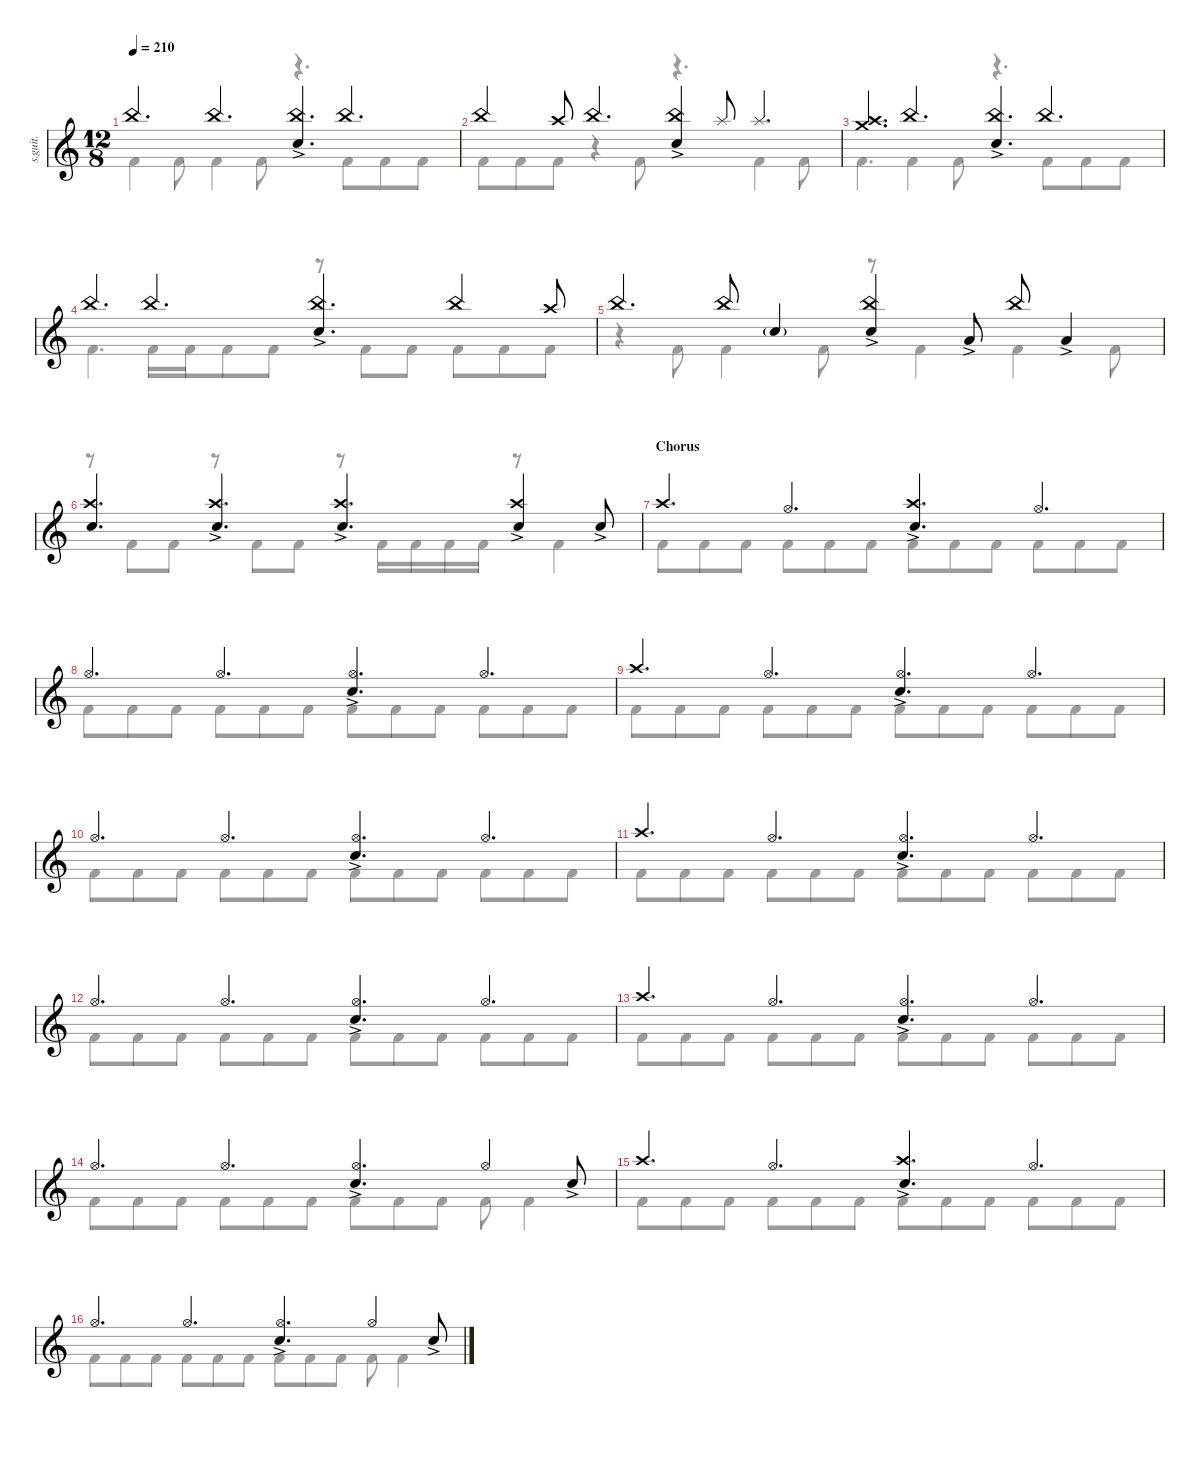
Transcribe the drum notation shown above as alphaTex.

\defaultSystemsLayout 4
\hideDynamics
\bracketExtendMode nobrackets
\track ("Percussion" "s.guit.") {instrument percussion}
\staff {score}
\articulation defaults
\voice
\ts (12 8)
\tempo 210
\clef g2
\ks c "China (hit)".4{d lyrics (0 "") lyrics (1 "") lyrics (2 "") lyrics (3 "") lyrics (4 "") dy f} "China (hit)".4{d lyrics (0 "") lyrics (1 "") lyrics (2 "") lyrics (3 "") lyrics (4 "")}
("China (hit)" "Snare (hit) 2"{ac}).4{d lyrics (0 "") lyrics (1 "") lyrics (2 "") lyrics (3 "") lyrics (4 "")} "China (hit)".4{d lyrics (0 "") lyrics (1 "") lyrics (2 "") lyrics (3 "") lyrics (4 "")} |
"China (hit)".4{lyrics (0 "") lyrics (1 "") lyrics (2 "") lyrics (3 "") lyrics (4 "")} "Crash high (hit)".8{lyrics (0 "") lyrics (1 "") lyrics (2 "") lyrics (3 "") lyrics (4 "")} "China (hit)".4{d lyrics (0 "") lyrics (1 "") lyrics (2 "") lyrics (3 "") lyrics (4 "")} ("China (hit)" "Snare (hit) 2"{ac}).4{lyrics (0 "") lyrics (1 "") lyrics (2 "") lyrics (3 "") lyrics (4 "")} "Splash (hit)".8{lyrics (0 "") lyrics (1 "") lyrics (2 "") lyrics (3 "") lyrics (4 "")} "Splash (hit)".4{d lyrics (0 "") lyrics (1 "") lyrics (2 "") lyrics (3 "") lyrics (4 "")} |
("Crash high (hit)" "Crash medium (hit)").4{d lyrics (0 "") lyrics (1 "") lyrics (2 "") lyrics (3 "") lyrics (4 "")} "China (hit)".4{d lyrics (0 "") lyrics (1 "") lyrics (2 "") lyrics (3 "") lyrics (4 "")} ("China (hit)" "Snare (hit) 2"{ac}).4{d lyrics (0 "") lyrics (1 "") lyrics (2 "") lyrics (3 "") lyrics (4 "")} "China (hit)".4{d lyrics (0 "") lyrics (1 "") lyrics (2 "") lyrics (3 "") lyrics (4 "")} |
"China (hit)".4{d lyrics (0 "") lyrics (1 "") lyrics (2 "") lyrics (3 "") lyrics (4 "")} "China (hit)".4{d lyrics (0 "") lyrics (1 "") lyrics (2 "") lyrics (3 "") lyrics (4 "")} ("China (hit)" "Snare (hit) 2"{ac}).4{d lyrics (0 "") lyrics (1 "") lyrics (2 "") lyrics (3 "") lyrics (4 "")} "China (hit)".4{lyrics (0 "") lyrics (1 "") lyrics (2 "") lyrics (3 "") lyrics (4 "")} "Crash high (hit)".8{lyrics (0 "") lyrics (1 "") lyrics (2 "") lyrics (3 "") lyrics (4 "")} |
"China (hit)".4{d lyrics (0 "") lyrics (1 "") lyrics (2 "") lyrics (3 "") lyrics (4 "")} "China (hit)".8{lyrics (0 "") lyrics (1 "") lyrics (2 "") lyrics (3 "") lyrics (4 "")} "Snare (hit) 2"{g}.4{lyrics (0 "") lyrics (1 "") lyrics (2 "") lyrics (3 "") lyrics (4 "") dy ff} ("Snare (hit) 2"{ac} "China (hit)").4{lyrics (0 "") lyrics (1 "") lyrics (2 "") lyrics (3 "") lyrics (4 "") dy f} "Low Tom (hit)"{ac}.8{lyrics (0 "") lyrics (1 "") lyrics (2 "") lyrics (3 "") lyrics (4 "") dy mf} "China (hit)".8{lyrics (0 "") lyrics (1 "") lyrics (2 "") lyrics (3 "") lyrics (4 "") dy f} "Low Tom (hit)"{ac}.4{lyrics (0 "") lyrics (1 "") lyrics (2 "") lyrics (3 "") lyrics (4 "") dy mf} |
("Snare (hit) 2" "Crash high (hit)").4{d lyrics (0 "") lyrics (1 "") lyrics (2 "") lyrics (3 "") lyrics (4 "") dy f} ("Crash high (hit)" "Snare (hit) 2"{ac}).4{d lyrics (0 "") lyrics (1 "") lyrics (2 "") lyrics (3 "") lyrics (4 "")} ("Crash high (hit)" "Snare (hit) 2"{ac}).4{d lyrics (0 "") lyrics (1 "") lyrics (2 "") lyrics (3 "") lyrics (4 "")} ("Crash high (hit)" "Snare (hit) 2"{ac}).4{lyrics (0 "") lyrics (1 "") lyrics (2 "") lyrics (3 "") lyrics (4 "")} "Snare (hit) 2"{ac}.8{lyrics (0 "") lyrics (1 "") lyrics (2 "") lyrics (3 "") lyrics (4 "") dy mf} |
\section ("" "Chorus")
"Crash high (hit)".4{d lyrics (0 "") lyrics (1 "") lyrics (2 "") lyrics (3 "") lyrics (4 "") dy f} "Hi-Hat (open)".4{d lyrics (0 "") lyrics (1 "") lyrics (2 "") lyrics (3 "") lyrics (4 "")} ("Snare (hit) 2"{ac} "Crash high (hit)").4{d lyrics (0 "") lyrics (1 "") lyrics (2 "") lyrics (3 "") lyrics (4 "")} "Hi-Hat (open)".4{d lyrics (0 "") lyrics (1 "") lyrics (2 "") lyrics (3 "") lyrics (4 "")} |
"Hi-Hat (open)".4{d lyrics (0 "") lyrics (1 "") lyrics (2 "") lyrics (3 "") lyrics (4 "")} "Hi-Hat (open)".4{d lyrics (0 "") lyrics (1 "") lyrics (2 "") lyrics (3 "") lyrics (4 "")} ("Snare (hit) 2"{ac} "Hi-Hat (open)").4{d lyrics (0 "") lyrics (1 "") lyrics (2 "") lyrics (3 "") lyrics (4 "")} "Hi-Hat (open)".4{d lyrics (0 "") lyrics (1 "") lyrics (2 "") lyrics (3 "") lyrics (4 "")} |
"Crash high (hit)".4{d lyrics (0 "") lyrics (1 "") lyrics (2 "") lyrics (3 "") lyrics (4 "")} "Hi-Hat (open)".4{d lyrics (0 "") lyrics (1 "") lyrics (2 "") lyrics (3 "") lyrics (4 "")} ("Snare (hit) 2"{ac} "Hi-Hat (open)").4{d lyrics (0 "") lyrics (1 "") lyrics (2 "") lyrics (3 "") lyrics (4 "")} "Hi-Hat (open)".4{d lyrics (0 "") lyrics (1 "") lyrics (2 "") lyrics (3 "") lyrics (4 "")} |
"Hi-Hat (open)".4{d lyrics (0 "") lyrics (1 "") lyrics (2 "") lyrics (3 "") lyrics (4 "")} "Hi-Hat (open)".4{d lyrics (0 "") lyrics (1 "") lyrics (2 "") lyrics (3 "") lyrics (4 "")} ("Snare (hit) 2"{ac} "Hi-Hat (open)").4{d lyrics (0 "") lyrics (1 "") lyrics (2 "") lyrics (3 "") lyrics (4 "")} "Hi-Hat (open)".4{d lyrics (0 "") lyrics (1 "") lyrics (2 "") lyrics (3 "") lyrics (4 "")} |
"Crash high (hit)".4{d lyrics (0 "") lyrics (1 "") lyrics (2 "") lyrics (3 "") lyrics (4 "")} "Hi-Hat (open)".4{d lyrics (0 "") lyrics (1 "") lyrics (2 "") lyrics (3 "") lyrics (4 "")} ("Snare (hit) 2"{ac} "Hi-Hat (open)").4{d lyrics (0 "") lyrics (1 "") lyrics (2 "") lyrics (3 "") lyrics (4 "")} "Hi-Hat (open)".4{d lyrics (0 "") lyrics (1 "") lyrics (2 "") lyrics (3 "") lyrics (4 "")} |
"Hi-Hat (open)".4{d lyrics (0 "") lyrics (1 "") lyrics (2 "") lyrics (3 "") lyrics (4 "")} "Hi-Hat (open)".4{d lyrics (0 "") lyrics (1 "") lyrics (2 "") lyrics (3 "") lyrics (4 "")} ("Snare (hit) 2"{ac} "Hi-Hat (open)").4{d lyrics (0 "") lyrics (1 "") lyrics (2 "") lyrics (3 "") lyrics (4 "")} "Hi-Hat (open)".4{d lyrics (0 "") lyrics (1 "") lyrics (2 "") lyrics (3 "") lyrics (4 "")} |
"Crash high (hit)".4{d lyrics (0 "") lyrics (1 "") lyrics (2 "") lyrics (3 "") lyrics (4 "")} "Hi-Hat (open)".4{d lyrics (0 "") lyrics (1 "") lyrics (2 "") lyrics (3 "") lyrics (4 "")} ("Snare (hit) 2"{ac} "Hi-Hat (open)").4{d lyrics (0 "") lyrics (1 "") lyrics (2 "") lyrics (3 "") lyrics (4 "")} "Hi-Hat (open)".4{d lyrics (0 "") lyrics (1 "") lyrics (2 "") lyrics (3 "") lyrics (4 "")} |
"Hi-Hat (open)".4{d lyrics (0 "") lyrics (1 "") lyrics (2 "") lyrics (3 "") lyrics (4 "")} "Hi-Hat (open)".4{d lyrics (0 "") lyrics (1 "") lyrics (2 "") lyrics (3 "") lyrics (4 "")} ("Snare (hit) 2"{ac} "Hi-Hat (open)").4{d lyrics (0 "") lyrics (1 "") lyrics (2 "") lyrics (3 "") lyrics (4 "")} "Hi-Hat (open)".4{lyrics (0 "") lyrics (1 "") lyrics (2 "") lyrics (3 "") lyrics (4 "")} "Snare (hit) 2"{ac}.8{lyrics (0 "") lyrics (1 "") lyrics (2 "") lyrics (3 "") lyrics (4 "") dy mf} |
"Crash high (hit)".4{d lyrics (0 "") lyrics (1 "") lyrics (2 "") lyrics (3 "") lyrics (4 "") dy f} "Hi-Hat (open)".4{d lyrics (0 "") lyrics (1 "") lyrics (2 "") lyrics (3 "") lyrics (4 "")} ("Snare (hit) 2"{ac} "Crash high (hit)").4{d lyrics (0 "") lyrics (1 "") lyrics (2 "") lyrics (3 "") lyrics (4 "")} "Hi-Hat (open)".4{d lyrics (0 "") lyrics (1 "") lyrics (2 "") lyrics (3 "") lyrics (4 "")} |
"Hi-Hat (open)".4{d lyrics (0 "") lyrics (1 "") lyrics (2 "") lyrics (3 "") lyrics (4 "")} "Hi-Hat (open)".4{d lyrics (0 "") lyrics (1 "") lyrics (2 "") lyrics (3 "") lyrics (4 "")} ("Snare (hit) 2"{ac} "Hi-Hat (open)").4{d lyrics (0 "") lyrics (1 "") lyrics (2 "") lyrics (3 "") lyrics (4 "")} "Hi-Hat (open)".4{lyrics (0 "") lyrics (1 "") lyrics (2 "") lyrics (3 "") lyrics (4 "")} "Snare (hit) 2"{ac}.8{lyrics (0 "") lyrics (1 "") lyrics (2 "") lyrics (3 "") lyrics (4 "") dy mf}
\voice
\clef g2
\ottava regular
\simile none
\ks c "Kick (hit) 2".4{lyrics (0 "") lyrics (1 "") lyrics (2 "") lyrics (3 "") lyrics (4 "") dy f} "Kick (hit) 2".8{lyrics (0 "") lyrics (1 "") lyrics (2 "") lyrics (3 "") lyrics (4 "")} "Kick (hit) 2".4{lyrics (0 "") lyrics (1 "") lyrics (2 "") lyrics (3 "") lyrics (4 "")} "Kick (hit) 2".8{lyrics (0 "") lyrics (1 "") lyrics (2 "") lyrics (3 "") lyrics (4 "")}
r.4{d} "Kick (hit) 2".8{lyrics (0 "") lyrics (1 "") lyrics (2 "") lyrics (3 "") lyrics (4 "")} "Kick (hit) 2".8{lyrics (0 "") lyrics (1 "") lyrics (2 "") lyrics (3 "") lyrics (4 "")} "Kick (hit) 2".8{lyrics (0 "") lyrics (1 "") lyrics (2 "") lyrics (3 "") lyrics (4 "")} |
"Kick (hit) 2".8{lyrics (0 "") lyrics (1 "") lyrics (2 "") lyrics (3 "") lyrics (4 "")} "Kick (hit) 2".8{lyrics (0 "") lyrics (1 "") lyrics (2 "") lyrics (3 "") lyrics (4 "")} "Kick (hit) 2".8{lyrics (0 "") lyrics (1 "") lyrics (2 "") lyrics (3 "") lyrics (4 "")} r.4 "Kick (hit) 2".8{lyrics (0 "") lyrics (1 "") lyrics (2 "") lyrics (3 "") lyrics (4 "")} r.4{d} "Kick (hit) 2".4{lyrics (0 "") lyrics (1 "") lyrics (2 "") lyrics (3 "") lyrics (4 "")} "Kick (hit) 2".8{lyrics (0 "") lyrics (1 "") lyrics (2 "") lyrics (3 "") lyrics (4 "")} |
"Kick (hit) 2".4{d lyrics (0 "") lyrics (1 "") lyrics (2 "") lyrics (3 "") lyrics (4 "")} "Kick (hit) 2".4{lyrics (0 "") lyrics (1 "") lyrics (2 "") lyrics (3 "") lyrics (4 "")} "Kick (hit) 2".8{lyrics (0 "") lyrics (1 "") lyrics (2 "") lyrics (3 "") lyrics (4 "")} r.4{d} "Kick (hit) 2".8{lyrics (0 "") lyrics (1 "") lyrics (2 "") lyrics (3 "") lyrics (4 "")} "Kick (hit) 2".8{lyrics (0 "") lyrics (1 "") lyrics (2 "") lyrics (3 "") lyrics (4 "")} "Kick (hit) 2".8{lyrics (0 "") lyrics (1 "") lyrics (2 "") lyrics (3 "") lyrics (4 "")} |
"Kick (hit) 2".4{d lyrics (0 "") lyrics (1 "") lyrics (2 "") lyrics (3 "") lyrics (4 "")} "Kick (hit) 2".16{lyrics (0 "") lyrics (1 "") lyrics (2 "") lyrics (3 "") lyrics (4 "")} "Kick (hit) 2".16{lyrics (0 "") lyrics (1 "") lyrics (2 "") lyrics (3 "") lyrics (4 "")} "Kick (hit) 2".8{lyrics (0 "") lyrics (1 "") lyrics (2 "") lyrics (3 "") lyrics (4 "")} "Kick (hit) 2".8{lyrics (0 "") lyrics (1 "") lyrics (2 "") lyrics (3 "") lyrics (4 "")} r.8 "Kick (hit) 2".8{lyrics (0 "") lyrics (1 "") lyrics (2 "") lyrics (3 "") lyrics (4 "")} "Kick (hit) 2".8{lyrics (0 "") lyrics (1 "") lyrics (2 "") lyrics (3 "") lyrics (4 "")} "Kick (hit) 2".8{lyrics (0 "") lyrics (1 "") lyrics (2 "") lyrics (3 "") lyrics (4 "")} "Kick (hit) 2".8{lyrics (0 "") lyrics (1 "") lyrics (2 "") lyrics (3 "") lyrics (4 "")} "Kick (hit) 2".8{lyrics (0 "") lyrics (1 "") lyrics (2 "") lyrics (3 "") lyrics (4 "")} |
r.4 "Kick (hit) 2".8{lyrics (0 "") lyrics (1 "") lyrics (2 "") lyrics (3 "") lyrics (4 "")} "Kick (hit) 2".4{lyrics (0 "") lyrics (1 "") lyrics (2 "") lyrics (3 "") lyrics (4 "")} "Kick (hit) 2".8{lyrics (0 "") lyrics (1 "") lyrics (2 "") lyrics (3 "") lyrics (4 "")} r.8 "Kick (hit) 2".4{lyrics (0 "") lyrics (1 "") lyrics (2 "") lyrics (3 "") lyrics (4 "")} "Kick (hit) 2".4{lyrics (0 "") lyrics (1 "") lyrics (2 "") lyrics (3 "") lyrics (4 "")} "Kick (hit) 2".8{lyrics (0 "") lyrics (1 "") lyrics (2 "") lyrics (3 "") lyrics (4 "")} |
r.8 "Kick (hit) 2".8{lyrics (0 "") lyrics (1 "") lyrics (2 "") lyrics (3 "") lyrics (4 "")} "Kick (hit) 2".8{lyrics (0 "") lyrics (1 "") lyrics (2 "") lyrics (3 "") lyrics (4 "")} r.8 "Kick (hit) 2".8{lyrics (0 "") lyrics (1 "") lyrics (2 "") lyrics (3 "") lyrics (4 "")} "Kick (hit) 2".8{lyrics (0 "") lyrics (1 "") lyrics (2 "") lyrics (3 "") lyrics (4 "")} r.8 "Kick (hit) 2".16{lyrics (0 "") lyrics (1 "") lyrics (2 "") lyrics (3 "") lyrics (4 "")} "Kick (hit) 2".16{lyrics (0 "") lyrics (1 "") lyrics (2 "") lyrics (3 "") lyrics (4 "")} "Kick (hit) 2".16{lyrics (0 "") lyrics (1 "") lyrics (2 "") lyrics (3 "") lyrics (4 "")} "Kick (hit) 2".16{lyrics (0 "") lyrics (1 "") lyrics (2 "") lyrics (3 "") lyrics (4 "")} r.8 "Kick (hit) 2".4{lyrics (0 "") lyrics (1 "") lyrics (2 "") lyrics (3 "") lyrics (4 "")} |
"Kick (hit) 2".8{lyrics (0 "") lyrics (1 "") lyrics (2 "") lyrics (3 "") lyrics (4 "")} "Kick (hit) 2".8{lyrics (0 "") lyrics (1 "") lyrics (2 "") lyrics (3 "") lyrics (4 "")} "Kick (hit) 2".8{lyrics (0 "") lyrics (1 "") lyrics (2 "") lyrics (3 "") lyrics (4 "")} "Kick (hit) 2".8{lyrics (0 "") lyrics (1 "") lyrics (2 "") lyrics (3 "") lyrics (4 "")} "Kick (hit) 2".8{lyrics (0 "") lyrics (1 "") lyrics (2 "") lyrics (3 "") lyrics (4 "")} "Kick (hit) 2".8{lyrics (0 "") lyrics (1 "") lyrics (2 "") lyrics (3 "") lyrics (4 "")} "Kick (hit) 2".8{lyrics (0 "") lyrics (1 "") lyrics (2 "") lyrics (3 "") lyrics (4 "")} "Kick (hit) 2".8{lyrics (0 "") lyrics (1 "") lyrics (2 "") lyrics (3 "") lyrics (4 "")} "Kick (hit) 2".8{lyrics (0 "") lyrics (1 "") lyrics (2 "") lyrics (3 "") lyrics (4 "")} "Kick (hit) 2".8{lyrics (0 "") lyrics (1 "") lyrics (2 "") lyrics (3 "") lyrics (4 "")} "Kick (hit) 2".8{lyrics (0 "") lyrics (1 "") lyrics (2 "") lyrics (3 "") lyrics (4 "")} "Kick (hit) 2".8{lyrics (0 "") lyrics (1 "") lyrics (2 "") lyrics (3 "") lyrics (4 "")} |
"Kick (hit) 2".8{lyrics (0 "") lyrics (1 "") lyrics (2 "") lyrics (3 "") lyrics (4 "")} "Kick (hit) 2".8{lyrics (0 "") lyrics (1 "") lyrics (2 "") lyrics (3 "") lyrics (4 "")} "Kick (hit) 2".8{lyrics (0 "") lyrics (1 "") lyrics (2 "") lyrics (3 "") lyrics (4 "")} "Kick (hit) 2".8{lyrics (0 "") lyrics (1 "") lyrics (2 "") lyrics (3 "") lyrics (4 "")} "Kick (hit) 2".8{lyrics (0 "") lyrics (1 "") lyrics (2 "") lyrics (3 "") lyrics (4 "")} "Kick (hit) 2".8{lyrics (0 "") lyrics (1 "") lyrics (2 "") lyrics (3 "") lyrics (4 "")} "Kick (hit) 2".8{lyrics (0 "") lyrics (1 "") lyrics (2 "") lyrics (3 "") lyrics (4 "")} "Kick (hit) 2".8{lyrics (0 "") lyrics (1 "") lyrics (2 "") lyrics (3 "") lyrics (4 "")} "Kick (hit) 2".8{lyrics (0 "") lyrics (1 "") lyrics (2 "") lyrics (3 "") lyrics (4 "")} "Kick (hit) 2".8{lyrics (0 "") lyrics (1 "") lyrics (2 "") lyrics (3 "") lyrics (4 "")} "Kick (hit) 2".8{lyrics (0 "") lyrics (1 "") lyrics (2 "") lyrics (3 "") lyrics (4 "")} "Kick (hit) 2".8{lyrics (0 "") lyrics (1 "") lyrics (2 "") lyrics (3 "") lyrics (4 "")} |
"Kick (hit) 2".8{lyrics (0 "") lyrics (1 "") lyrics (2 "") lyrics (3 "") lyrics (4 "")} "Kick (hit) 2".8{lyrics (0 "") lyrics (1 "") lyrics (2 "") lyrics (3 "") lyrics (4 "")} "Kick (hit) 2".8{lyrics (0 "") lyrics (1 "") lyrics (2 "") lyrics (3 "") lyrics (4 "")} "Kick (hit) 2".8{lyrics (0 "") lyrics (1 "") lyrics (2 "") lyrics (3 "") lyrics (4 "")} "Kick (hit) 2".8{lyrics (0 "") lyrics (1 "") lyrics (2 "") lyrics (3 "") lyrics (4 "")} "Kick (hit) 2".8{lyrics (0 "") lyrics (1 "") lyrics (2 "") lyrics (3 "") lyrics (4 "")} "Kick (hit) 2".8{lyrics (0 "") lyrics (1 "") lyrics (2 "") lyrics (3 "") lyrics (4 "")} "Kick (hit) 2".8{lyrics (0 "") lyrics (1 "") lyrics (2 "") lyrics (3 "") lyrics (4 "")} "Kick (hit) 2".8{lyrics (0 "") lyrics (1 "") lyrics (2 "") lyrics (3 "") lyrics (4 "")} "Kick (hit) 2".8{lyrics (0 "") lyrics (1 "") lyrics (2 "") lyrics (3 "") lyrics (4 "")} "Kick (hit) 2".8{lyrics (0 "") lyrics (1 "") lyrics (2 "") lyrics (3 "") lyrics (4 "")} "Kick (hit) 2".8{lyrics (0 "") lyrics (1 "") lyrics (2 "") lyrics (3 "") lyrics (4 "")} |
"Kick (hit) 2".8{lyrics (0 "") lyrics (1 "") lyrics (2 "") lyrics (3 "") lyrics (4 "")} "Kick (hit) 2".8{lyrics (0 "") lyrics (1 "") lyrics (2 "") lyrics (3 "") lyrics (4 "")} "Kick (hit) 2".8{lyrics (0 "") lyrics (1 "") lyrics (2 "") lyrics (3 "") lyrics (4 "")} "Kick (hit) 2".8{lyrics (0 "") lyrics (1 "") lyrics (2 "") lyrics (3 "") lyrics (4 "")} "Kick (hit) 2".8{lyrics (0 "") lyrics (1 "") lyrics (2 "") lyrics (3 "") lyrics (4 "")} "Kick (hit) 2".8{lyrics (0 "") lyrics (1 "") lyrics (2 "") lyrics (3 "") lyrics (4 "")} "Kick (hit) 2".8{lyrics (0 "") lyrics (1 "") lyrics (2 "") lyrics (3 "") lyrics (4 "")} "Kick (hit) 2".8{lyrics (0 "") lyrics (1 "") lyrics (2 "") lyrics (3 "") lyrics (4 "")} "Kick (hit) 2".8{lyrics (0 "") lyrics (1 "") lyrics (2 "") lyrics (3 "") lyrics (4 "")} "Kick (hit) 2".8{lyrics (0 "") lyrics (1 "") lyrics (2 "") lyrics (3 "") lyrics (4 "")} "Kick (hit) 2".8{lyrics (0 "") lyrics (1 "") lyrics (2 "") lyrics (3 "") lyrics (4 "")} "Kick (hit) 2".8{lyrics (0 "") lyrics (1 "") lyrics (2 "") lyrics (3 "") lyrics (4 "")} |
"Kick (hit) 2".8{lyrics (0 "") lyrics (1 "") lyrics (2 "") lyrics (3 "") lyrics (4 "")} "Kick (hit) 2".8{lyrics (0 "") lyrics (1 "") lyrics (2 "") lyrics (3 "") lyrics (4 "")} "Kick (hit) 2".8{lyrics (0 "") lyrics (1 "") lyrics (2 "") lyrics (3 "") lyrics (4 "")} "Kick (hit) 2".8{lyrics (0 "") lyrics (1 "") lyrics (2 "") lyrics (3 "") lyrics (4 "")} "Kick (hit) 2".8{lyrics (0 "") lyrics (1 "") lyrics (2 "") lyrics (3 "") lyrics (4 "")} "Kick (hit) 2".8{lyrics (0 "") lyrics (1 "") lyrics (2 "") lyrics (3 "") lyrics (4 "")} "Kick (hit) 2".8{lyrics (0 "") lyrics (1 "") lyrics (2 "") lyrics (3 "") lyrics (4 "")} "Kick (hit) 2".8{lyrics (0 "") lyrics (1 "") lyrics (2 "") lyrics (3 "") lyrics (4 "")} "Kick (hit) 2".8{lyrics (0 "") lyrics (1 "") lyrics (2 "") lyrics (3 "") lyrics (4 "")} "Kick (hit) 2".8{lyrics (0 "") lyrics (1 "") lyrics (2 "") lyrics (3 "") lyrics (4 "")} "Kick (hit) 2".8{lyrics (0 "") lyrics (1 "") lyrics (2 "") lyrics (3 "") lyrics (4 "")} "Kick (hit) 2".8{lyrics (0 "") lyrics (1 "") lyrics (2 "") lyrics (3 "") lyrics (4 "")} |
"Kick (hit) 2".8{lyrics (0 "") lyrics (1 "") lyrics (2 "") lyrics (3 "") lyrics (4 "")} "Kick (hit) 2".8{lyrics (0 "") lyrics (1 "") lyrics (2 "") lyrics (3 "") lyrics (4 "")} "Kick (hit) 2".8{lyrics (0 "") lyrics (1 "") lyrics (2 "") lyrics (3 "") lyrics (4 "")} "Kick (hit) 2".8{lyrics (0 "") lyrics (1 "") lyrics (2 "") lyrics (3 "") lyrics (4 "")} "Kick (hit) 2".8{lyrics (0 "") lyrics (1 "") lyrics (2 "") lyrics (3 "") lyrics (4 "")} "Kick (hit) 2".8{lyrics (0 "") lyrics (1 "") lyrics (2 "") lyrics (3 "") lyrics (4 "")} "Kick (hit) 2".8{lyrics (0 "") lyrics (1 "") lyrics (2 "") lyrics (3 "") lyrics (4 "")} "Kick (hit) 2".8{lyrics (0 "") lyrics (1 "") lyrics (2 "") lyrics (3 "") lyrics (4 "")} "Kick (hit) 2".8{lyrics (0 "") lyrics (1 "") lyrics (2 "") lyrics (3 "") lyrics (4 "")} "Kick (hit) 2".8{lyrics (0 "") lyrics (1 "") lyrics (2 "") lyrics (3 "") lyrics (4 "")} "Kick (hit) 2".8{lyrics (0 "") lyrics (1 "") lyrics (2 "") lyrics (3 "") lyrics (4 "")} "Kick (hit) 2".8{lyrics (0 "") lyrics (1 "") lyrics (2 "") lyrics (3 "") lyrics (4 "")} |
"Kick (hit) 2".8{lyrics (0 "") lyrics (1 "") lyrics (2 "") lyrics (3 "") lyrics (4 "")} "Kick (hit) 2".8{lyrics (0 "") lyrics (1 "") lyrics (2 "") lyrics (3 "") lyrics (4 "")} "Kick (hit) 2".8{lyrics (0 "") lyrics (1 "") lyrics (2 "") lyrics (3 "") lyrics (4 "")} "Kick (hit) 2".8{lyrics (0 "") lyrics (1 "") lyrics (2 "") lyrics (3 "") lyrics (4 "")} "Kick (hit) 2".8{lyrics (0 "") lyrics (1 "") lyrics (2 "") lyrics (3 "") lyrics (4 "")} "Kick (hit) 2".8{lyrics (0 "") lyrics (1 "") lyrics (2 "") lyrics (3 "") lyrics (4 "")} "Kick (hit) 2".8{lyrics (0 "") lyrics (1 "") lyrics (2 "") lyrics (3 "") lyrics (4 "")} "Kick (hit) 2".8{lyrics (0 "") lyrics (1 "") lyrics (2 "") lyrics (3 "") lyrics (4 "")} "Kick (hit) 2".8{lyrics (0 "") lyrics (1 "") lyrics (2 "") lyrics (3 "") lyrics (4 "")} "Kick (hit) 2".8{lyrics (0 "") lyrics (1 "") lyrics (2 "") lyrics (3 "") lyrics (4 "")} "Kick (hit) 2".8{lyrics (0 "") lyrics (1 "") lyrics (2 "") lyrics (3 "") lyrics (4 "")} "Kick (hit) 2".8{lyrics (0 "") lyrics (1 "") lyrics (2 "") lyrics (3 "") lyrics (4 "")} |
"Kick (hit) 2".8{lyrics (0 "") lyrics (1 "") lyrics (2 "") lyrics (3 "") lyrics (4 "")} "Kick (hit) 2".8{lyrics (0 "") lyrics (1 "") lyrics (2 "") lyrics (3 "") lyrics (4 "")} "Kick (hit) 2".8{lyrics (0 "") lyrics (1 "") lyrics (2 "") lyrics (3 "") lyrics (4 "")} "Kick (hit) 2".8{lyrics (0 "") lyrics (1 "") lyrics (2 "") lyrics (3 "") lyrics (4 "")} "Kick (hit) 2".8{lyrics (0 "") lyrics (1 "") lyrics (2 "") lyrics (3 "") lyrics (4 "")} "Kick (hit) 2".8{lyrics (0 "") lyrics (1 "") lyrics (2 "") lyrics (3 "") lyrics (4 "")} "Kick (hit) 2".8{lyrics (0 "") lyrics (1 "") lyrics (2 "") lyrics (3 "") lyrics (4 "")} "Kick (hit) 2".8{lyrics (0 "") lyrics (1 "") lyrics (2 "") lyrics (3 "") lyrics (4 "")} "Kick (hit) 2".8{lyrics (0 "") lyrics (1 "") lyrics (2 "") lyrics (3 "") lyrics (4 "")} "Kick (hit) 2".8{lyrics (0 "") lyrics (1 "") lyrics (2 "") lyrics (3 "") lyrics (4 "")} "Kick (hit) 2".4{lyrics (0 "") lyrics (1 "") lyrics (2 "") lyrics (3 "") lyrics (4 "")} |
"Kick (hit) 2".8{lyrics (0 "") lyrics (1 "") lyrics (2 "") lyrics (3 "") lyrics (4 "")} "Kick (hit) 2".8{lyrics (0 "") lyrics (1 "") lyrics (2 "") lyrics (3 "") lyrics (4 "")} "Kick (hit) 2".8{lyrics (0 "") lyrics (1 "") lyrics (2 "") lyrics (3 "") lyrics (4 "")} "Kick (hit) 2".8{lyrics (0 "") lyrics (1 "") lyrics (2 "") lyrics (3 "") lyrics (4 "")} "Kick (hit) 2".8{lyrics (0 "") lyrics (1 "") lyrics (2 "") lyrics (3 "") lyrics (4 "")} "Kick (hit) 2".8{lyrics (0 "") lyrics (1 "") lyrics (2 "") lyrics (3 "") lyrics (4 "")} "Kick (hit) 2".8{lyrics (0 "") lyrics (1 "") lyrics (2 "") lyrics (3 "") lyrics (4 "")} "Kick (hit) 2".8{lyrics (0 "") lyrics (1 "") lyrics (2 "") lyrics (3 "") lyrics (4 "")} "Kick (hit) 2".8{lyrics (0 "") lyrics (1 "") lyrics (2 "") lyrics (3 "") lyrics (4 "")} "Kick (hit) 2".8{lyrics (0 "") lyrics (1 "") lyrics (2 "") lyrics (3 "") lyrics (4 "")} "Kick (hit) 2".8{lyrics (0 "") lyrics (1 "") lyrics (2 "") lyrics (3 "") lyrics (4 "")} "Kick (hit) 2".8{lyrics (0 "") lyrics (1 "") lyrics (2 "") lyrics (3 "") lyrics (4 "")} |
"Kick (hit) 2".8{lyrics (0 "") lyrics (1 "") lyrics (2 "") lyrics (3 "") lyrics (4 "")} "Kick (hit) 2".8{lyrics (0 "") lyrics (1 "") lyrics (2 "") lyrics (3 "") lyrics (4 "")} "Kick (hit) 2".8{lyrics (0 "") lyrics (1 "") lyrics (2 "") lyrics (3 "") lyrics (4 "")} "Kick (hit) 2".8{lyrics (0 "") lyrics (1 "") lyrics (2 "") lyrics (3 "") lyrics (4 "")} "Kick (hit) 2".8{lyrics (0 "") lyrics (1 "") lyrics (2 "") lyrics (3 "") lyrics (4 "")} "Kick (hit) 2".8{lyrics (0 "") lyrics (1 "") lyrics (2 "") lyrics (3 "") lyrics (4 "")} "Kick (hit) 2".8{lyrics (0 "") lyrics (1 "") lyrics (2 "") lyrics (3 "") lyrics (4 "")} "Kick (hit) 2".8{lyrics (0 "") lyrics (1 "") lyrics (2 "") lyrics (3 "") lyrics (4 "")} "Kick (hit) 2".8{lyrics (0 "") lyrics (1 "") lyrics (2 "") lyrics (3 "") lyrics (4 "")} "Kick (hit) 2".8{lyrics (0 "") lyrics (1 "") lyrics (2 "") lyrics (3 "") lyrics (4 "")} "Kick (hit) 2".4{lyrics (0 "") lyrics (1 "") lyrics (2 "") lyrics (3 "") lyrics (4 "")}
